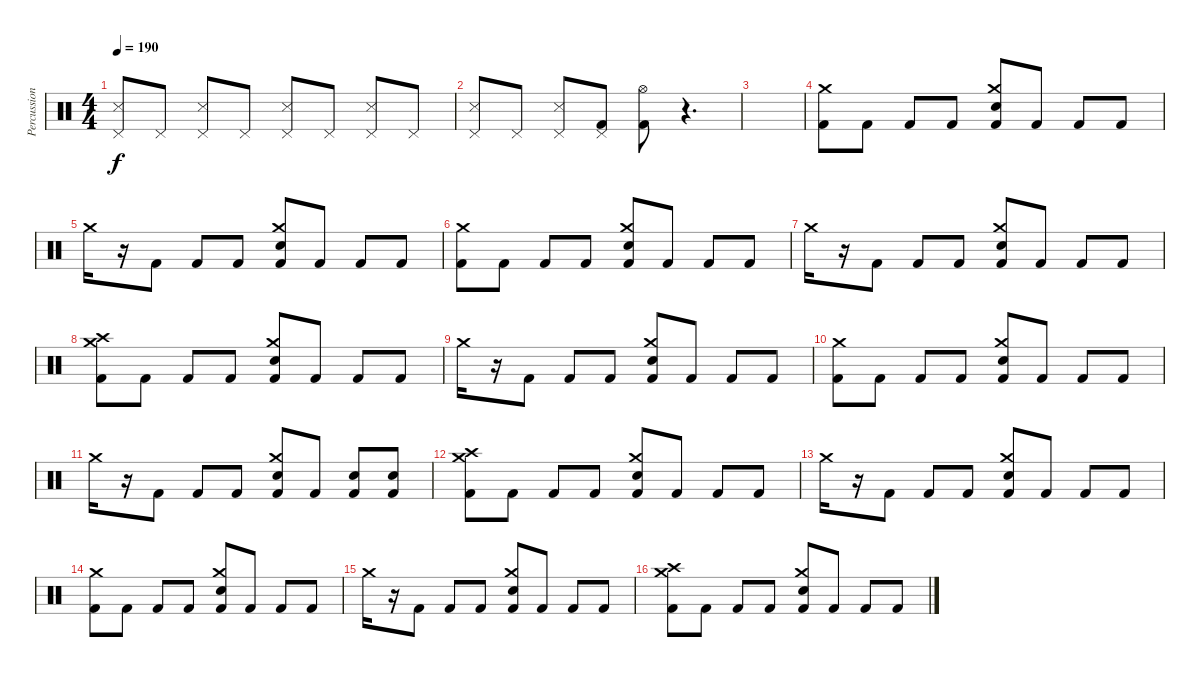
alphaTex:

\track ("Percussion" "Percussion") {instrument percussion}
\staff {score}
\articulation defaults
\ts (4 4)
\tempo 190
\clef neutral
\ks c
("Pedal Hi-Hat (hit)" "Snare (side stick) 3").8{dy f} "Pedal Hi-Hat (hit)".8 ("Pedal Hi-Hat (hit)" "Snare (side stick) 3").8 "Pedal Hi-Hat (hit)".8 ("Pedal Hi-Hat (hit)" "Snare (side stick) 3").8 "Pedal Hi-Hat (hit)".8 ("Pedal Hi-Hat (hit)" "Snare (side stick) 3").8 "Pedal Hi-Hat (hit)".8 |
("Pedal Hi-Hat (hit)" "Snare (side stick) 3").8 "Pedal Hi-Hat (hit)".8 ("Pedal Hi-Hat (hit)" "Snare (side stick) 3").8 ("Pedal Hi-Hat (hit)" "Kick (hit) 2").8 ("Hi-Hat (open)" "Kick (hit) 2").8 r.4{d} |
|
("Crash medium (hit)" "Kick (hit) 2").8 "Kick (hit) 2".8 "Kick (hit) 2".8 "Kick (hit) 2".8 ("Crash medium (hit)" "Snare (hit) 2" "Kick (hit) 2").8 "Kick (hit) 2".8 "Kick (hit) 2".8 "Kick (hit) 2".8 |
"Crash medium (hit)".16 r.16 "Kick (hit) 2".8 "Kick (hit) 2".8 "Kick (hit) 2".8 ("Crash medium (hit)" "Snare (hit) 2" "Kick (hit) 2").8 "Kick (hit) 2".8 "Kick (hit) 2".8 "Kick (hit) 2".8 |
("Crash medium (hit)" "Kick (hit) 2").8 "Kick (hit) 2".8 "Kick (hit) 2".8 "Kick (hit) 2".8 ("Crash medium (hit)" "Snare (hit) 2" "Kick (hit) 2").8 "Kick (hit) 2".8 "Kick (hit) 2".8 "Kick (hit) 2".8 |
"Crash medium (hit)".16 r.16 "Kick (hit) 2".8 "Kick (hit) 2".8 "Kick (hit) 2".8 ("Crash medium (hit)" "Snare (hit) 2" "Kick (hit) 2").8 "Kick (hit) 2".8 "Kick (hit) 2".8 "Kick (hit) 2".8 |
("Crash medium (hit)" "Crash high (hit)" "Kick (hit) 2").8 "Kick (hit) 2".8 "Kick (hit) 2".8 "Kick (hit) 2".8 ("Crash medium (hit)" "Snare (hit) 2" "Kick (hit) 2").8 "Kick (hit) 2".8 "Kick (hit) 2".8 "Kick (hit) 2".8 |
"Crash medium (hit)".16 r.16 "Kick (hit) 2".8 "Kick (hit) 2".8 "Kick (hit) 2".8 ("Crash medium (hit)" "Snare (hit) 2" "Kick (hit) 2").8 "Kick (hit) 2".8 "Kick (hit) 2".8 "Kick (hit) 2".8 |
("Crash medium (hit)" "Kick (hit) 2").8 "Kick (hit) 2".8 "Kick (hit) 2".8 "Kick (hit) 2".8 ("Crash medium (hit)" "Snare (hit) 2" "Kick (hit) 2").8 "Kick (hit) 2".8 "Kick (hit) 2".8 "Kick (hit) 2".8 |
"Crash medium (hit)".16 r.16 "Kick (hit) 2".8 "Kick (hit) 2".8 "Kick (hit) 2".8 ("Crash medium (hit)" "Snare (hit) 2" "Kick (hit) 2").8 "Kick (hit) 2".8 ("Snare (hit) 2" "Kick (hit) 2").8 ("Snare (hit) 2" "Kick (hit) 2").8 |
("Crash medium (hit)" "Crash high (hit)" "Kick (hit) 2").8 "Kick (hit) 2".8 "Kick (hit) 2".8 "Kick (hit) 2".8 ("Crash medium (hit)" "Snare (hit) 2" "Kick (hit) 2").8 "Kick (hit) 2".8 "Kick (hit) 2".8 "Kick (hit) 2".8 |
"Crash medium (hit)".16 r.16 "Kick (hit) 2".8 "Kick (hit) 2".8 "Kick (hit) 2".8 ("Crash medium (hit)" "Snare (hit) 2" "Kick (hit) 2").8 "Kick (hit) 2".8 "Kick (hit) 2".8 "Kick (hit) 2".8 |
("Crash medium (hit)" "Kick (hit) 2").8 "Kick (hit) 2".8 "Kick (hit) 2".8 "Kick (hit) 2".8 ("Crash medium (hit)" "Snare (hit) 2" "Kick (hit) 2").8 "Kick (hit) 2".8 "Kick (hit) 2".8 "Kick (hit) 2".8 |
"Crash medium (hit)".16 r.16 "Kick (hit) 2".8 "Kick (hit) 2".8 "Kick (hit) 2".8 ("Crash medium (hit)" "Snare (hit) 2" "Kick (hit) 2").8 "Kick (hit) 2".8 "Kick (hit) 2".8 "Kick (hit) 2".8 |
("Crash medium (hit)" "Crash high (hit)" "Kick (hit) 2").8 "Kick (hit) 2".8 "Kick (hit) 2".8 "Kick (hit) 2".8 ("Crash medium (hit)" "Snare (hit) 2" "Kick (hit) 2").8 "Kick (hit) 2".8 "Kick (hit) 2".8 "Kick (hit) 2".8
